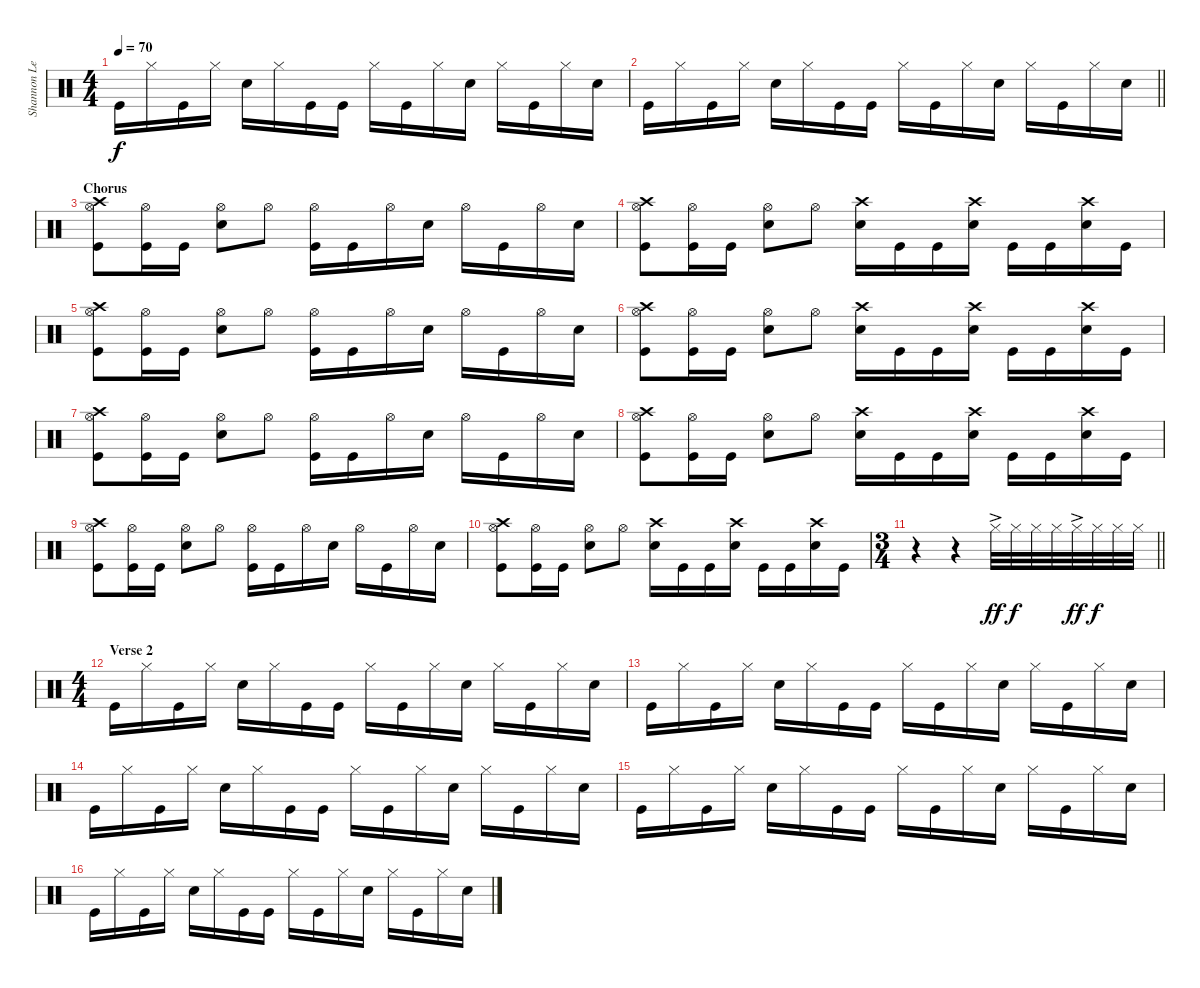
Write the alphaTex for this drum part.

\track ("Shannon Leto (Drums)" "Shannon Le") {instrument percussion}
\staff {score}
\articulation defaults
\ts (4 4)
\tempo 70
\clef neutral
\ks c "Kick (hit)".16{dy f} "Hi-Hat (closed)".16 "Kick (hit)".16 "Hi-Hat (closed)".16 "Snare (hit) 2".16 "Hi-Hat (closed)".16 "Kick (hit)".16 "Kick (hit)".16 "Hi-Hat (closed)".16 "Kick (hit)".16 "Hi-Hat (closed)".16 "Snare (hit) 2".16 "Hi-Hat (closed)".16 "Kick (hit)".16 "Hi-Hat (closed)".16 "Snare (hit) 2".16
|
\barLineRight lightlight "Kick (hit)".16 "Hi-Hat (closed)".16 "Kick (hit)".16 "Hi-Hat (closed)".16 "Snare (hit) 2".16 "Hi-Hat (closed)".16 "Kick (hit)".16 "Kick (hit)".16 "Hi-Hat (closed)".16 "Kick (hit)".16 "Hi-Hat (closed)".16 "Snare (hit) 2".16 "Hi-Hat (closed)".16 "Kick (hit)".16 "Hi-Hat (closed)".16 "Snare (hit) 2".16
|
\section ("" "Chorus")
("Crash high (hit)" "Hi-Hat (open)" "Kick (hit)").8 ("Hi-Hat (open)" "Kick (hit)").16 "Kick (hit)".16 ("Hi-Hat (open)" "Snare (hit) 2").8 "Hi-Hat (open)".8 ("Hi-Hat (open)" "Kick (hit)").16 "Kick (hit)".16 "Hi-Hat (open)".16 "Snare (hit) 2".16 "Hi-Hat (open)".16 "Kick (hit)".16 "Hi-Hat (open)".16 "Snare (hit) 2".16 |
("Crash high (hit)" "Hi-Hat (open)" "Kick (hit)").8 ("Hi-Hat (open)" "Kick (hit)").16 "Kick (hit)".16 ("Hi-Hat (open)" "Snare (hit) 2").8 "Hi-Hat (open)".8 ("Crash high (hit)" "Snare (hit) 2").16 "Kick (hit)".16 "Kick (hit)".16 ("Crash high (hit)" "Snare (hit) 2").16 "Kick (hit)".16 "Kick (hit)".16 ("Crash high (hit)" "Snare (hit) 2").16 "Kick (hit)".16 |
("Crash high (hit)" "Hi-Hat (open)" "Kick (hit)").8 ("Hi-Hat (open)" "Kick (hit)").16 "Kick (hit)".16 ("Hi-Hat (open)" "Snare (hit) 2").8 "Hi-Hat (open)".8 ("Hi-Hat (open)" "Kick (hit)").16 "Kick (hit)".16 "Hi-Hat (open)".16 "Snare (hit) 2".16 "Hi-Hat (open)".16 "Kick (hit)".16 "Hi-Hat (open)".16 "Snare (hit) 2".16 |
("Crash high (hit)" "Hi-Hat (open)" "Kick (hit)").8 ("Hi-Hat (open)" "Kick (hit)").16 "Kick (hit)".16 ("Hi-Hat (open)" "Snare (hit) 2").8 "Hi-Hat (open)".8 ("Crash high (hit)" "Snare (hit) 2").16 "Kick (hit)".16 "Kick (hit)".16 ("Crash high (hit)" "Snare (hit) 2").16 "Kick (hit)".16 "Kick (hit)".16 ("Crash high (hit)" "Snare (hit) 2").16 "Kick (hit)".16 |
("Crash high (hit)" "Hi-Hat (open)" "Kick (hit)").8 ("Hi-Hat (open)" "Kick (hit)").16 "Kick (hit)".16 ("Hi-Hat (open)" "Snare (hit) 2").8 "Hi-Hat (open)".8 ("Hi-Hat (open)" "Kick (hit)").16 "Kick (hit)".16 "Hi-Hat (open)".16 "Snare (hit) 2".16 "Hi-Hat (open)".16 "Kick (hit)".16 "Hi-Hat (open)".16 "Snare (hit) 2".16 |
("Crash high (hit)" "Hi-Hat (open)" "Kick (hit)").8 ("Hi-Hat (open)" "Kick (hit)").16 "Kick (hit)".16 ("Hi-Hat (open)" "Snare (hit) 2").8 "Hi-Hat (open)".8 ("Crash high (hit)" "Snare (hit) 2").16 "Kick (hit)".16 "Kick (hit)".16 ("Crash high (hit)" "Snare (hit) 2").16 "Kick (hit)".16 "Kick (hit)".16 ("Crash high (hit)" "Snare (hit) 2").16 "Kick (hit)".16 |
("Crash high (hit)" "Hi-Hat (open)" "Kick (hit)").8 ("Hi-Hat (open)" "Kick (hit)").16 "Kick (hit)".16 ("Hi-Hat (open)" "Snare (hit) 2").8 "Hi-Hat (open)".8 ("Hi-Hat (open)" "Kick (hit)").16 "Kick (hit)".16 "Hi-Hat (open)".16 "Snare (hit) 2".16 "Hi-Hat (open)".16 "Kick (hit)".16 "Hi-Hat (open)".16 "Snare (hit) 2".16 |
("Crash high (hit)" "Hi-Hat (open)" "Kick (hit)").8 ("Hi-Hat (open)" "Kick (hit)").16 "Kick (hit)".16 ("Hi-Hat (open)" "Snare (hit) 2").8 "Hi-Hat (open)".8 ("Crash high (hit)" "Snare (hit) 2").16 "Kick (hit)".16 "Kick (hit)".16 ("Crash high (hit)" "Snare (hit) 2").16 "Kick (hit)".16 "Kick (hit)".16 ("Crash high (hit)" "Snare (hit) 2").16 "Kick (hit)".16 |
\ts (3 4)
\barLineRight lightlight
r.4 r.4 "Hi-Hat (closed)"{ac}.32{dy ff} "Hi-Hat (closed)".32{dy f} "Hi-Hat (closed)".32 "Hi-Hat (closed)".32 "Hi-Hat (closed)"{ac}.32{dy ff} "Hi-Hat (closed)".32{dy f} "Hi-Hat (closed)".32 "Hi-Hat (closed)".32 |
\ts (4 4)
\section ("" "Verse 2")
"Kick (hit)".16 "Hi-Hat (closed)".16 "Kick (hit)".16 "Hi-Hat (closed)".16 "Snare (hit) 2".16 "Hi-Hat (closed)".16 "Kick (hit)".16 "Kick (hit)".16 "Hi-Hat (closed)".16 "Kick (hit)".16 "Hi-Hat (closed)".16 "Snare (hit) 2".16 "Hi-Hat (closed)".16 "Kick (hit)".16 "Hi-Hat (closed)".16 "Snare (hit) 2".16 |
"Kick (hit)".16 "Hi-Hat (closed)".16 "Kick (hit)".16 "Hi-Hat (closed)".16 "Snare (hit) 2".16 "Hi-Hat (closed)".16 "Kick (hit)".16 "Kick (hit)".16 "Hi-Hat (closed)".16 "Kick (hit)".16 "Hi-Hat (closed)".16 "Snare (hit) 2".16 "Hi-Hat (closed)".16 "Kick (hit)".16 "Hi-Hat (closed)".16 "Snare (hit) 2".16 |
"Kick (hit)".16 "Hi-Hat (closed)".16 "Kick (hit)".16 "Hi-Hat (closed)".16 "Snare (hit) 2".16 "Hi-Hat (closed)".16 "Kick (hit)".16 "Kick (hit)".16 "Hi-Hat (closed)".16 "Kick (hit)".16 "Hi-Hat (closed)".16 "Snare (hit) 2".16 "Hi-Hat (closed)".16 "Kick (hit)".16 "Hi-Hat (closed)".16 "Snare (hit) 2".16 |
"Kick (hit)".16 "Hi-Hat (closed)".16 "Kick (hit)".16 "Hi-Hat (closed)".16 "Snare (hit) 2".16 "Hi-Hat (closed)".16 "Kick (hit)".16 "Kick (hit)".16 "Hi-Hat (closed)".16 "Kick (hit)".16 "Hi-Hat (closed)".16 "Snare (hit) 2".16 "Hi-Hat (closed)".16 "Kick (hit)".16 "Hi-Hat (closed)".16 "Snare (hit) 2".16 |
"Kick (hit)".16 "Hi-Hat (closed)".16 "Kick (hit)".16 "Hi-Hat (closed)".16 "Snare (hit) 2".16 "Hi-Hat (closed)".16 "Kick (hit)".16 "Kick (hit)".16 "Hi-Hat (closed)".16 "Kick (hit)".16 "Hi-Hat (closed)".16 "Snare (hit) 2".16 "Hi-Hat (closed)".16 "Kick (hit)".16 "Hi-Hat (closed)".16 "Snare (hit) 2".16
